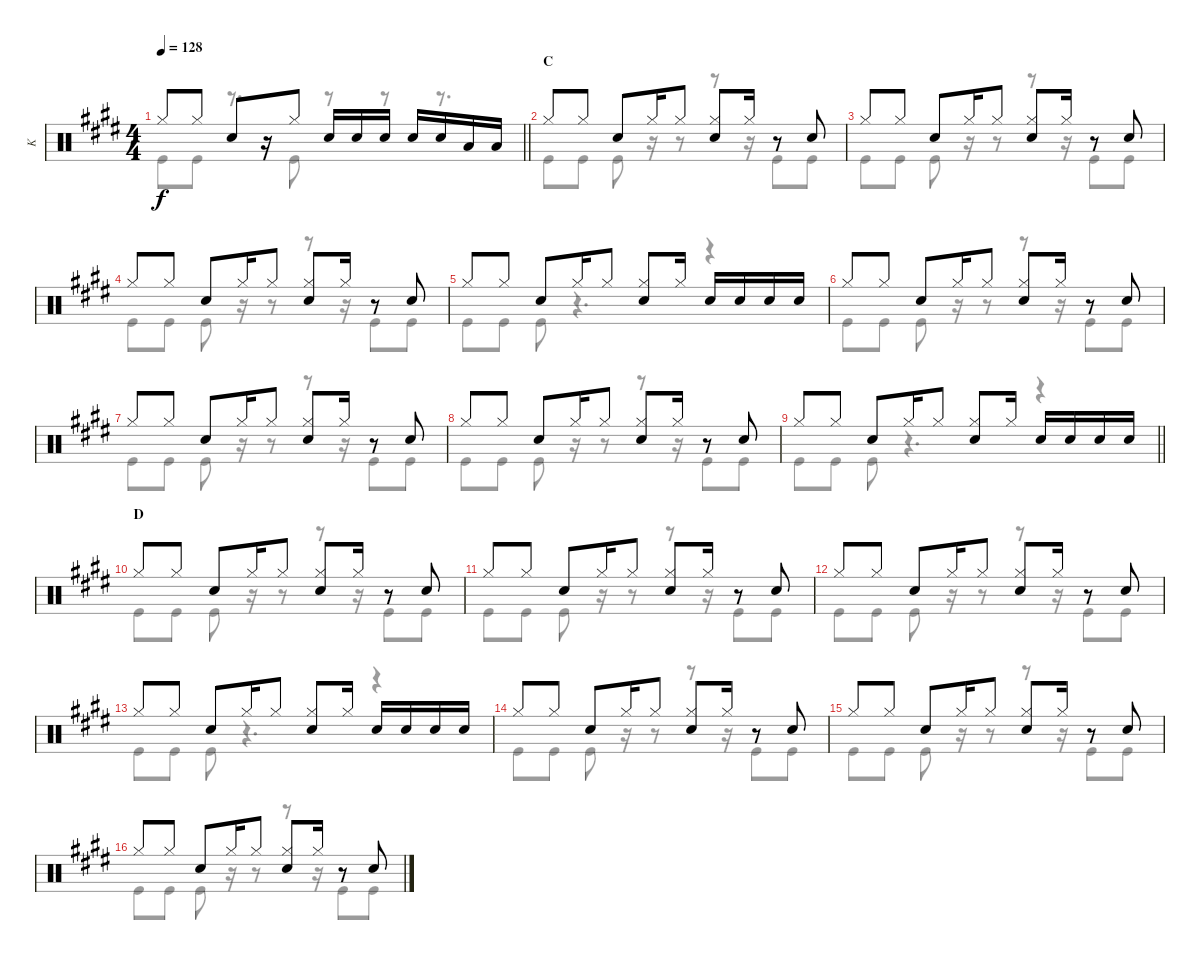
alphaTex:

\track ("K" "K") {instrument percussion}
\staff {score}
\articulation defaults
\voice
\ts (4 4)
\tempo 128
\clef neutral
\barLineRight lightlight
\ks e "Hi-Hat (closed)".8{dy f} "Hi-Hat (closed)".8 "Snare (hit) 2".8
r.16 "Hi-Hat (closed)".8 "Snare (hit) 2".16 "Snare (hit) 2".16 "Snare (hit) 2".16 "Snare (hit) 2".16 "Snare (hit) 2".16 "Low Tom (hit)".16 "Low Tom (hit)".16 |
\section ("" "C")
"Hi-Hat (closed)".8 "Hi-Hat (closed)".8 "Snare (hit) 2".8 "Hi-Hat (closed)".16 "Hi-Hat (closed)".8 ("Hi-Hat (closed)" "Snare (hit) 2").8 "Hi-Hat (closed)".16 r.8 "Snare (hit) 2".8 |
"Hi-Hat (closed)".8 "Hi-Hat (closed)".8 "Snare (hit) 2".8 "Hi-Hat (closed)".16 "Hi-Hat (closed)".8 ("Hi-Hat (closed)" "Snare (hit) 2").8 "Hi-Hat (closed)".16 r.8 "Snare (hit) 2".8 |
"Hi-Hat (closed)".8 "Hi-Hat (closed)".8 "Snare (hit) 2".8 "Hi-Hat (closed)".16 "Hi-Hat (closed)".8 ("Hi-Hat (closed)" "Snare (hit) 2").8 "Hi-Hat (closed)".16 r.8 "Snare (hit) 2".8 |
"Hi-Hat (closed)".8 "Hi-Hat (closed)".8 "Snare (hit) 2".8 "Hi-Hat (closed)".16 "Hi-Hat (closed)".8 ("Hi-Hat (closed)" "Snare (hit) 2").8 "Hi-Hat (closed)".16 "Snare (hit) 2".16 "Snare (hit) 2".16 "Snare (hit) 2".16 "Snare (hit) 2".16 |
"Hi-Hat (closed)".8 "Hi-Hat (closed)".8 "Snare (hit) 2".8 "Hi-Hat (closed)".16 "Hi-Hat (closed)".8 ("Hi-Hat (closed)" "Snare (hit) 2").8 "Hi-Hat (closed)".16 r.8 "Snare (hit) 2".8 |
"Hi-Hat (closed)".8 "Hi-Hat (closed)".8 "Snare (hit) 2".8 "Hi-Hat (closed)".16 "Hi-Hat (closed)".8 ("Hi-Hat (closed)" "Snare (hit) 2").8 "Hi-Hat (closed)".16 r.8 "Snare (hit) 2".8 |
"Hi-Hat (closed)".8 "Hi-Hat (closed)".8 "Snare (hit) 2".8 "Hi-Hat (closed)".16 "Hi-Hat (closed)".8 ("Hi-Hat (closed)" "Snare (hit) 2").8 "Hi-Hat (closed)".16 r.8 "Snare (hit) 2".8 |
\barLineRight lightlight "Hi-Hat (closed)".8 "Hi-Hat (closed)".8 "Snare (hit) 2".8 "Hi-Hat (closed)".16 "Hi-Hat (closed)".8
("Hi-Hat (closed)" "Snare (hit) 2").8 "Hi-Hat (closed)".16 "Snare (hit) 2".16 "Snare (hit) 2".16 "Snare (hit) 2".16 "Snare (hit) 2".16 |
\section ("" "D")
"Hi-Hat (closed)".8 "Hi-Hat (closed)".8 "Snare (hit) 2".8 "Hi-Hat (closed)".16 "Hi-Hat (closed)".8 ("Hi-Hat (closed)" "Snare (hit) 2").8 "Hi-Hat (closed)".16 r.8 "Snare (hit) 2".8 |
"Hi-Hat (closed)".8 "Hi-Hat (closed)".8 "Snare (hit) 2".8 "Hi-Hat (closed)".16 "Hi-Hat (closed)".8 ("Hi-Hat (closed)" "Snare (hit) 2").8 "Hi-Hat (closed)".16 r.8 "Snare (hit) 2".8 |
"Hi-Hat (closed)".8 "Hi-Hat (closed)".8 "Snare (hit) 2".8 "Hi-Hat (closed)".16 "Hi-Hat (closed)".8 ("Hi-Hat (closed)" "Snare (hit) 2").8 "Hi-Hat (closed)".16 r.8 "Snare (hit) 2".8 |
"Hi-Hat (closed)".8 "Hi-Hat (closed)".8 "Snare (hit) 2".8 "Hi-Hat (closed)".16 "Hi-Hat (closed)".8 ("Hi-Hat (closed)" "Snare (hit) 2").8 "Hi-Hat (closed)".16 "Snare (hit) 2".16 "Snare (hit) 2".16 "Snare (hit) 2".16 "Snare (hit) 2".16 |
"Hi-Hat (closed)".8 "Hi-Hat (closed)".8 "Snare (hit) 2".8 "Hi-Hat (closed)".16 "Hi-Hat (closed)".8 ("Hi-Hat (closed)" "Snare (hit) 2").8 "Hi-Hat (closed)".16 r.8 "Snare (hit) 2".8 |
"Hi-Hat (closed)".8 "Hi-Hat (closed)".8 "Snare (hit) 2".8 "Hi-Hat (closed)".16 "Hi-Hat (closed)".8 ("Hi-Hat (closed)" "Snare (hit) 2").8 "Hi-Hat (closed)".16 r.8 "Snare (hit) 2".8 |
"Hi-Hat (closed)".8 "Hi-Hat (closed)".8 "Snare (hit) 2".8 "Hi-Hat (closed)".16 "Hi-Hat (closed)".8 ("Hi-Hat (closed)" "Snare (hit) 2").8 "Hi-Hat (closed)".16 r.8 "Snare (hit) 2".8
\voice
\clef neutral
\ottava regular
\simile none
\barLineRight lightlight
\ks e "Kick (hit)".8{dy f} "Kick (hit)".8
r.8{d} "Kick (hit)".8 r.8 r.8 r.8{d} |
"Kick (hit)".8 "Kick (hit)".8 "Kick (hit)".8 r.16 r.8 r.8 r.16 "Kick (hit)".8 "Kick (hit)".8 |
"Kick (hit)".8 "Kick (hit)".8 "Kick (hit)".8 r.16 r.8 r.8 r.16 "Kick (hit)".8 "Kick (hit)".8 |
"Kick (hit)".8 "Kick (hit)".8 "Kick (hit)".8 r.16 r.8 r.8 r.16 "Kick (hit)".8 "Kick (hit)".8 |
"Kick (hit)".8 "Kick (hit)".8 "Kick (hit)".8 r.4{d} r.4 |
"Kick (hit)".8 "Kick (hit)".8 "Kick (hit)".8 r.16 r.8 r.8 r.16 "Kick (hit)".8 "Kick (hit)".8 |
"Kick (hit)".8 "Kick (hit)".8 "Kick (hit)".8 r.16 r.8 r.8 r.16 "Kick (hit)".8 "Kick (hit)".8 |
"Kick (hit)".8 "Kick (hit)".8 "Kick (hit)".8 r.16 r.8 r.8 r.16 "Kick (hit)".8 "Kick (hit)".8 |
\barLineRight lightlight "Kick (hit)".8 "Kick (hit)".8 "Kick (hit)".8
r.4{d} r.4 |
"Kick (hit)".8 "Kick (hit)".8 "Kick (hit)".8 r.16 r.8 r.8 r.16 "Kick (hit)".8 "Kick (hit)".8 |
"Kick (hit)".8 "Kick (hit)".8 "Kick (hit)".8 r.16 r.8 r.8 r.16 "Kick (hit)".8 "Kick (hit)".8 |
"Kick (hit)".8 "Kick (hit)".8 "Kick (hit)".8 r.16 r.8 r.8 r.16 "Kick (hit)".8 "Kick (hit)".8 |
"Kick (hit)".8 "Kick (hit)".8 "Kick (hit)".8 r.4{d} r.4 |
"Kick (hit)".8 "Kick (hit)".8 "Kick (hit)".8 r.16 r.8 r.8 r.16 "Kick (hit)".8 "Kick (hit)".8 |
"Kick (hit)".8 "Kick (hit)".8 "Kick (hit)".8 r.16 r.8 r.8 r.16 "Kick (hit)".8 "Kick (hit)".8 |
"Kick (hit)".8 "Kick (hit)".8 "Kick (hit)".8 r.16 r.8 r.8 r.16 "Kick (hit)".8 "Kick (hit)".8
